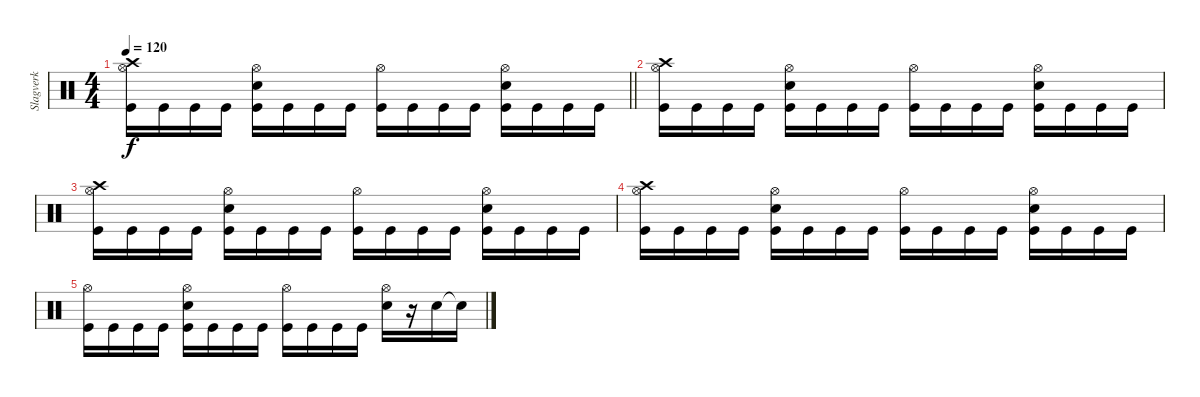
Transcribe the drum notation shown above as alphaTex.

\track ("Slagverk" "Slagverk") {instrument percussion}
\staff {score}
\articulation defaults
\ts (4 4)
\tempo 120
\clef neutral
\barLineRight lightlight
\ks c
("Crash high (hit)" "Hi-Hat (open)" "Kick (hit)").16{dy f} "Kick (hit)".16 "Kick (hit)".16 "Kick (hit)".16 ("Hi-Hat (open)" "Electric Snare (hit)" "Kick (hit)").16 "Kick (hit)".16 "Kick (hit)".16 "Kick (hit)".16 ("Hi-Hat (open)" "Kick (hit)").16 "Kick (hit)".16 "Kick (hit)".16 "Kick (hit)".16 ("Hi-Hat (open)" "Electric Snare (hit)" "Kick (hit)").16 "Kick (hit)".16 "Kick (hit)".16 "Kick (hit)".16 |
("Crash high (hit)" "Hi-Hat (open)" "Kick (hit)").16 "Kick (hit)".16 "Kick (hit)".16 "Kick (hit)".16 ("Hi-Hat (open)" "Electric Snare (hit)" "Kick (hit)").16 "Kick (hit)".16 "Kick (hit)".16 "Kick (hit)".16 ("Hi-Hat (open)" "Kick (hit)").16 "Kick (hit)".16 "Kick (hit)".16 "Kick (hit)".16 ("Hi-Hat (open)" "Electric Snare (hit)" "Kick (hit)").16 "Kick (hit)".16 "Kick (hit)".16 "Kick (hit)".16 |
("Crash high (hit)" "Hi-Hat (open)" "Kick (hit)").16 "Kick (hit)".16 "Kick (hit)".16 "Kick (hit)".16 ("Hi-Hat (open)" "Electric Snare (hit)" "Kick (hit)").16 "Kick (hit)".16 "Kick (hit)".16 "Kick (hit)".16 ("Hi-Hat (open)" "Kick (hit)").16 "Kick (hit)".16 "Kick (hit)".16 "Kick (hit)".16 ("Hi-Hat (open)" "Electric Snare (hit)" "Kick (hit)").16 "Kick (hit)".16 "Kick (hit)".16 "Kick (hit)".16 |
("Crash high (hit)" "Hi-Hat (open)" "Kick (hit)").16 "Kick (hit)".16 "Kick (hit)".16 "Kick (hit)".16 ("Hi-Hat (open)" "Electric Snare (hit)" "Kick (hit)").16 "Kick (hit)".16 "Kick (hit)".16 "Kick (hit)".16 ("Hi-Hat (open)" "Kick (hit)").16 "Kick (hit)".16 "Kick (hit)".16 "Kick (hit)".16 ("Hi-Hat (open)" "Electric Snare (hit)" "Kick (hit)").16 "Kick (hit)".16 "Kick (hit)".16 "Kick (hit)".16 |
("Hi-Hat (open)" "Kick (hit)").16 "Kick (hit)".16 "Kick (hit)".16 "Kick (hit)".16 ("Hi-Hat (open)" "Electric Snare (hit)" "Kick (hit)").16 "Kick (hit)".16 "Kick (hit)".16 "Kick (hit)".16 ("Hi-Hat (open)" "Kick (hit)").16 "Kick (hit)".16 "Kick (hit)".16 "Kick (hit)".16 ("Hi-Hat (open)" "Electric Snare (hit)").16 r.16 "Electric Snare (hit)".16 "Snare (hit)"{t}.16
